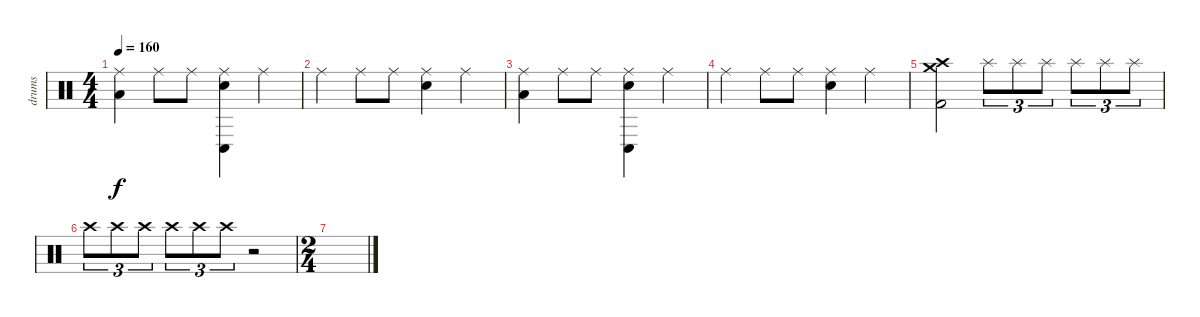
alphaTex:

\track ("drums" "drums") {instrument percussion}
\staff {score}
\articulation defaults
\ts (4 4)
\tempo 160
\clef neutral
\ks c
("Ride (middle)" "Low Tom (hit)").4{dy f} "Ride (middle)".8 "Ride (middle)".8 ("Ride (middle)" "Conga low (hit)" "Snare (hit) 2").4 "Ride (middle)".4 |
"Ride (middle)".4 "Ride (middle)".8 "Ride (middle)".8 ("Ride (middle)" "Snare (hit) 2").4 "Ride (middle)".4 |
("Ride (middle)" "Low Tom (hit)").4 "Ride (middle)".8 "Ride (middle)".8 ("Ride (middle)" "Conga low (hit)" "Snare (hit) 2").4 "Ride (middle)".4 |
"Ride (middle)".4 "Ride (middle)".8 "Ride (middle)".8 ("Ride (middle)" "Snare (hit) 2").4 "Ride (middle)".4 |
("Crash medium (hit)" "Crash high (hit)" "Kick (hit) 2").2 "Splash (hit)".8{tu (3 2)} "Splash (hit)".8{tu (3 2)} "Splash (hit)".8{tu (3 2)} "Splash (hit)".8{tu (3 2)} "Splash (hit)".8{tu (3 2)} "Splash (hit)".8{tu (3 2)} |
"Crash high (hit)".8{tu (3 2)} "Crash high (hit)".8{tu (3 2)} "Crash high (hit)".8{tu (3 2)} "Crash high (hit)".8{tu (3 2)} "Crash high (hit)".8{tu (3 2)} "Crash high (hit)".8{tu (3 2)} r.2 |
\ts (2 4)
